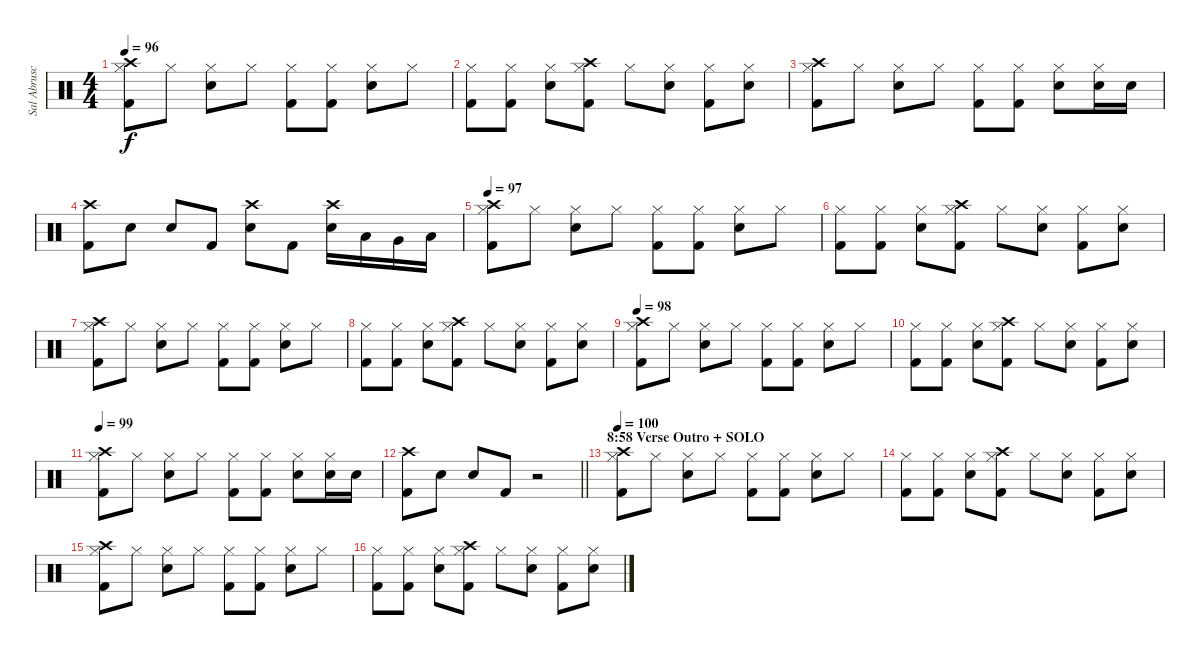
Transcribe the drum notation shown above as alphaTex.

\track ("Sal Abruscato (Drums)" "Sal Abrusc") {instrument percussion}
\staff {score}
\articulation defaults
\ts (4 4)
\tempo 96
\clef neutral
\ks c
("Crash high (hit)" "Hi-Hat (closed)" "Kick (hit) 2").8{dy f} "Hi-Hat (closed)".8 ("Hi-Hat (closed)" "Electric Snare (hit)").8 "Hi-Hat (closed)".8 ("Hi-Hat (closed)" "Kick (hit) 2").8 ("Hi-Hat (closed)" "Kick (hit) 2").8 ("Hi-Hat (closed)" "Electric Snare (hit)").8 "Hi-Hat (closed)".8 |
("Hi-Hat (closed)" "Kick (hit) 2").8 ("Hi-Hat (closed)" "Kick (hit) 2").8 ("Hi-Hat (closed)" "Electric Snare (hit)").8 ("Crash high (hit)" "Hi-Hat (closed)" "Kick (hit) 2").8 "Hi-Hat (closed)".8 ("Hi-Hat (closed)" "Electric Snare (hit)").8 ("Hi-Hat (closed)" "Kick (hit) 2").8 ("Hi-Hat (closed)" "Electric Snare (hit)").8 |
("Crash high (hit)" "Hi-Hat (closed)" "Kick (hit) 2").8 "Hi-Hat (closed)".8 ("Hi-Hat (closed)" "Electric Snare (hit)").8 "Hi-Hat (closed)".8 ("Hi-Hat (closed)" "Kick (hit) 2").8 ("Hi-Hat (closed)" "Kick (hit) 2").8 ("Hi-Hat (closed)" "Electric Snare (hit)").8 ("Electric Snare (hit)" "Hi-Hat (closed)").16 "Electric Snare (hit)".16 |
("Crash high (hit)" "Kick (hit) 2").8 "Electric Snare (hit)".8 "Electric Snare (hit)".8 "Kick (hit) 2".8 ("Crash high (hit)" "Electric Snare (hit)").8 "Kick (hit) 2".8 ("Crash high (hit)" "Electric Snare (hit)").16 "Low Tom (hit)".16 "Very Low Tom (hit)".16 "Low Floor Tom (hit)".16 |
\tempo 97
("Crash high (hit)" "Hi-Hat (closed)" "Kick (hit) 2").8 "Hi-Hat (closed)".8 ("Hi-Hat (closed)" "Electric Snare (hit)").8 "Hi-Hat (closed)".8 ("Hi-Hat (closed)" "Kick (hit) 2").8 ("Hi-Hat (closed)" "Kick (hit) 2").8 ("Hi-Hat (closed)" "Electric Snare (hit)").8 "Hi-Hat (closed)".8 |
("Hi-Hat (closed)" "Kick (hit) 2").8 ("Hi-Hat (closed)" "Kick (hit) 2").8 ("Hi-Hat (closed)" "Electric Snare (hit)").8 ("Crash high (hit)" "Hi-Hat (closed)" "Kick (hit) 2").8 "Hi-Hat (closed)".8 ("Hi-Hat (closed)" "Electric Snare (hit)").8 ("Hi-Hat (closed)" "Kick (hit) 2").8 ("Hi-Hat (closed)" "Electric Snare (hit)").8 |
("Crash high (hit)" "Hi-Hat (closed)" "Kick (hit) 2").8 "Hi-Hat (closed)".8 ("Hi-Hat (closed)" "Electric Snare (hit)").8 "Hi-Hat (closed)".8 ("Hi-Hat (closed)" "Kick (hit) 2").8 ("Hi-Hat (closed)" "Kick (hit) 2").8 ("Hi-Hat (closed)" "Electric Snare (hit)").8 "Hi-Hat (closed)".8 |
("Hi-Hat (closed)" "Kick (hit) 2").8 ("Hi-Hat (closed)" "Kick (hit) 2").8 ("Hi-Hat (closed)" "Electric Snare (hit)").8 ("Crash high (hit)" "Hi-Hat (closed)" "Kick (hit) 2").8 "Hi-Hat (closed)".8 ("Hi-Hat (closed)" "Electric Snare (hit)").8 ("Hi-Hat (closed)" "Kick (hit) 2").8 ("Hi-Hat (closed)" "Electric Snare (hit)").8 |
\tempo 98
("Crash high (hit)" "Hi-Hat (closed)" "Kick (hit) 2").8 "Hi-Hat (closed)".8 ("Hi-Hat (closed)" "Electric Snare (hit)").8 "Hi-Hat (closed)".8 ("Hi-Hat (closed)" "Kick (hit) 2").8 ("Hi-Hat (closed)" "Kick (hit) 2").8 ("Hi-Hat (closed)" "Electric Snare (hit)").8 "Hi-Hat (closed)".8 |
("Hi-Hat (closed)" "Kick (hit) 2").8 ("Hi-Hat (closed)" "Kick (hit) 2").8 ("Hi-Hat (closed)" "Electric Snare (hit)").8 ("Crash high (hit)" "Hi-Hat (closed)" "Kick (hit) 2").8 "Hi-Hat (closed)".8 ("Hi-Hat (closed)" "Electric Snare (hit)").8 ("Hi-Hat (closed)" "Kick (hit) 2").8 ("Hi-Hat (closed)" "Electric Snare (hit)").8 |
\tempo 99
("Crash high (hit)" "Hi-Hat (closed)" "Kick (hit) 2").8 "Hi-Hat (closed)".8 ("Hi-Hat (closed)" "Electric Snare (hit)").8 "Hi-Hat (closed)".8 ("Hi-Hat (closed)" "Kick (hit) 2").8 ("Hi-Hat (closed)" "Kick (hit) 2").8 ("Hi-Hat (closed)" "Electric Snare (hit)").8 ("Electric Snare (hit)" "Hi-Hat (closed)").16 "Electric Snare (hit)".16 |
\barLineRight lightlight
("Crash high (hit)" "Kick (hit) 2").8 "Electric Snare (hit)".8 "Electric Snare (hit)".8 "Kick (hit) 2".8 r.2 |
\section ("" "8:58 Verse Outro + SOLO")
\tempo 100
("Crash high (hit)" "Hi-Hat (closed)" "Kick (hit) 2").8 "Hi-Hat (closed)".8 ("Hi-Hat (closed)" "Electric Snare (hit)").8 "Hi-Hat (closed)".8 ("Hi-Hat (closed)" "Kick (hit) 2").8 ("Hi-Hat (closed)" "Kick (hit) 2").8 ("Hi-Hat (closed)" "Electric Snare (hit)").8 "Hi-Hat (closed)".8 |
("Hi-Hat (closed)" "Kick (hit) 2").8 ("Hi-Hat (closed)" "Kick (hit) 2").8 ("Hi-Hat (closed)" "Electric Snare (hit)").8 ("Crash high (hit)" "Hi-Hat (closed)" "Kick (hit) 2").8 "Hi-Hat (closed)".8 ("Hi-Hat (closed)" "Electric Snare (hit)").8 ("Hi-Hat (closed)" "Kick (hit) 2").8 ("Hi-Hat (closed)" "Electric Snare (hit)").8 |
("Crash high (hit)" "Hi-Hat (closed)" "Kick (hit) 2").8 "Hi-Hat (closed)".8 ("Hi-Hat (closed)" "Electric Snare (hit)").8 "Hi-Hat (closed)".8 ("Hi-Hat (closed)" "Kick (hit) 2").8 ("Hi-Hat (closed)" "Kick (hit) 2").8 ("Hi-Hat (closed)" "Electric Snare (hit)").8 "Hi-Hat (closed)".8 |
("Hi-Hat (closed)" "Kick (hit) 2").8 ("Hi-Hat (closed)" "Kick (hit) 2").8 ("Hi-Hat (closed)" "Electric Snare (hit)").8 ("Crash high (hit)" "Hi-Hat (closed)" "Kick (hit) 2").8 "Hi-Hat (closed)".8 ("Hi-Hat (closed)" "Electric Snare (hit)").8 ("Hi-Hat (closed)" "Kick (hit) 2").8 ("Hi-Hat (closed)" "Electric Snare (hit)").8
